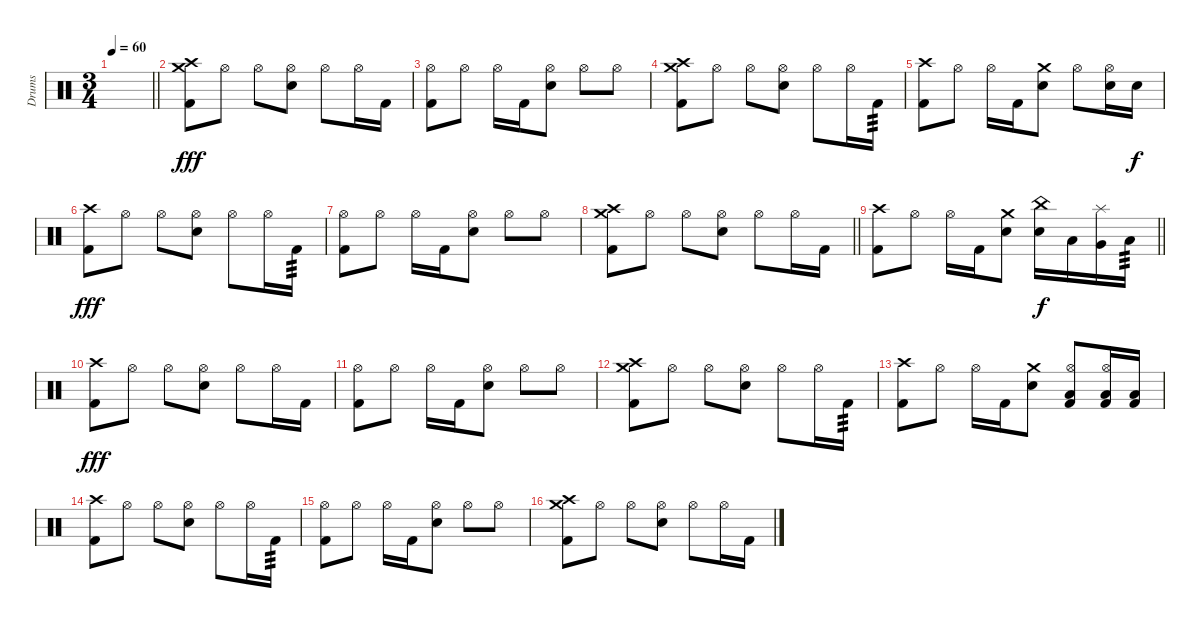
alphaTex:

\track ("Drums" "Drums") {instrument percussion}
\staff {score}
\articulation defaults
\ts (3 4)
\tempo 60
\clef neutral
\barLineRight lightlight
\ks c
|
("Kick (hit) 2" "Crash high (hit)" "Crash medium (hit)").8{dy fff} "Hi-Hat (open)".8 "Hi-Hat (open)".8 ("Electric Snare (hit)" "Hi-Hat (open)").8 "Hi-Hat (open)".8 "Hi-Hat (open)".16 "Kick (hit) 2".16 |
("Kick (hit) 2" "Hi-Hat (open)").8 "Hi-Hat (open)".8 "Hi-Hat (open)".16 "Kick (hit) 2".16 ("Electric Snare (hit)" "Hi-Hat (open)").8 "Hi-Hat (open)".8 "Hi-Hat (open)".8 |
("Kick (hit) 2" "Crash high (hit)" "Crash medium (hit)").8 "Hi-Hat (open)".8 "Hi-Hat (open)".8 ("Electric Snare (hit)" "Hi-Hat (open)").8 "Hi-Hat (open)".8 "Hi-Hat (open)".16 "Kick (hit) 2".16{tp 3} |
("Kick (hit) 2" "Crash high (hit)").8 "Hi-Hat (open)".8 "Hi-Hat (open)".16 "Kick (hit) 2".16 ("Electric Snare (hit)" "Crash medium (hit)").8 "Hi-Hat (open)".8 ("Electric Snare (hit)" "Hi-Hat (open)").16 "Electric Snare (hit)".16{dy f} |
("Kick (hit) 2" "Crash high (hit)").8{dy fff} "Hi-Hat (open)".8 "Hi-Hat (open)".8 ("Electric Snare (hit)" "Hi-Hat (open)").8 "Hi-Hat (open)".8 "Hi-Hat (open)".16 "Kick (hit) 2".16{tp 3} |
("Kick (hit) 2" "Hi-Hat (open)").8 "Hi-Hat (open)".8 "Hi-Hat (open)".16 "Kick (hit) 2".16 ("Electric Snare (hit)" "Hi-Hat (open)").8 "Hi-Hat (open)".8 "Hi-Hat (open)".8 |
\barLineRight lightlight
("Kick (hit) 2" "Crash high (hit)" "Crash medium (hit)").8 "Hi-Hat (open)".8 "Hi-Hat (open)".8 ("Electric Snare (hit)" "Hi-Hat (open)").8 "Hi-Hat (open)".8 "Hi-Hat (open)".16 "Kick (hit) 2".16 |
\barLineRight lightlight
("Kick (hit) 2" "Crash high (hit)").8 "Hi-Hat (open)".8 "Hi-Hat (open)".16 "Kick (hit) 2".16 ("Electric Snare (hit)" "Crash medium (hit)").8 ("Electric Snare (hit)" "China (hit)").16{dy f} "Low Tom (hit)".16 ("Very Low Tom (hit)" "Splash (hit)").16 "Low Floor Tom (hit)".16{tp 3} |
("Kick (hit) 2" "Crash high (hit)").8{dy fff} "Hi-Hat (open)".8 "Hi-Hat (open)".8 ("Electric Snare (hit)" "Hi-Hat (open)").8 "Hi-Hat (open)".8 "Hi-Hat (open)".16 "Kick (hit) 2".16 |
("Kick (hit) 2" "Hi-Hat (open)").8 "Hi-Hat (open)".8 "Hi-Hat (open)".16 "Kick (hit) 2".16 ("Electric Snare (hit)" "Hi-Hat (open)").8 "Hi-Hat (open)".8 "Hi-Hat (open)".8 |
("Kick (hit) 2" "Crash high (hit)" "Crash medium (hit)").8 "Hi-Hat (open)".8 "Hi-Hat (open)".8 ("Electric Snare (hit)" "Hi-Hat (open)").8 "Hi-Hat (open)".8 "Hi-Hat (open)".16 "Kick (hit) 2".16{tp 3} |
("Kick (hit) 2" "Crash high (hit)").8 "Hi-Hat (open)".8 "Hi-Hat (open)".16 "Kick (hit) 2".16 ("Electric Snare (hit)" "Crash medium (hit)").8 ("Kick (hit) 2" "Low Floor Tom (hit)" "Hi-Hat (open)").8 ("Kick (hit) 2" "Low Floor Tom (hit)" "Hi-Hat (open)").16 ("Kick (hit) 2" "Low Floor Tom (hit)").16 |
("Kick (hit) 2" "Crash high (hit)").8 "Hi-Hat (open)".8 "Hi-Hat (open)".8 ("Electric Snare (hit)" "Hi-Hat (open)").8 "Hi-Hat (open)".8 "Hi-Hat (open)".16 "Kick (hit) 2".16{tp 3} |
("Kick (hit) 2" "Hi-Hat (open)").8 "Hi-Hat (open)".8 "Hi-Hat (open)".16 "Kick (hit) 2".16 ("Electric Snare (hit)" "Hi-Hat (open)").8 "Hi-Hat (open)".8 "Hi-Hat (open)".8 |
("Kick (hit) 2" "Crash high (hit)" "Crash medium (hit)").8 "Hi-Hat (open)".8 "Hi-Hat (open)".8 ("Electric Snare (hit)" "Hi-Hat (open)").8 "Hi-Hat (open)".8 "Hi-Hat (open)".16 "Kick (hit) 2".16
